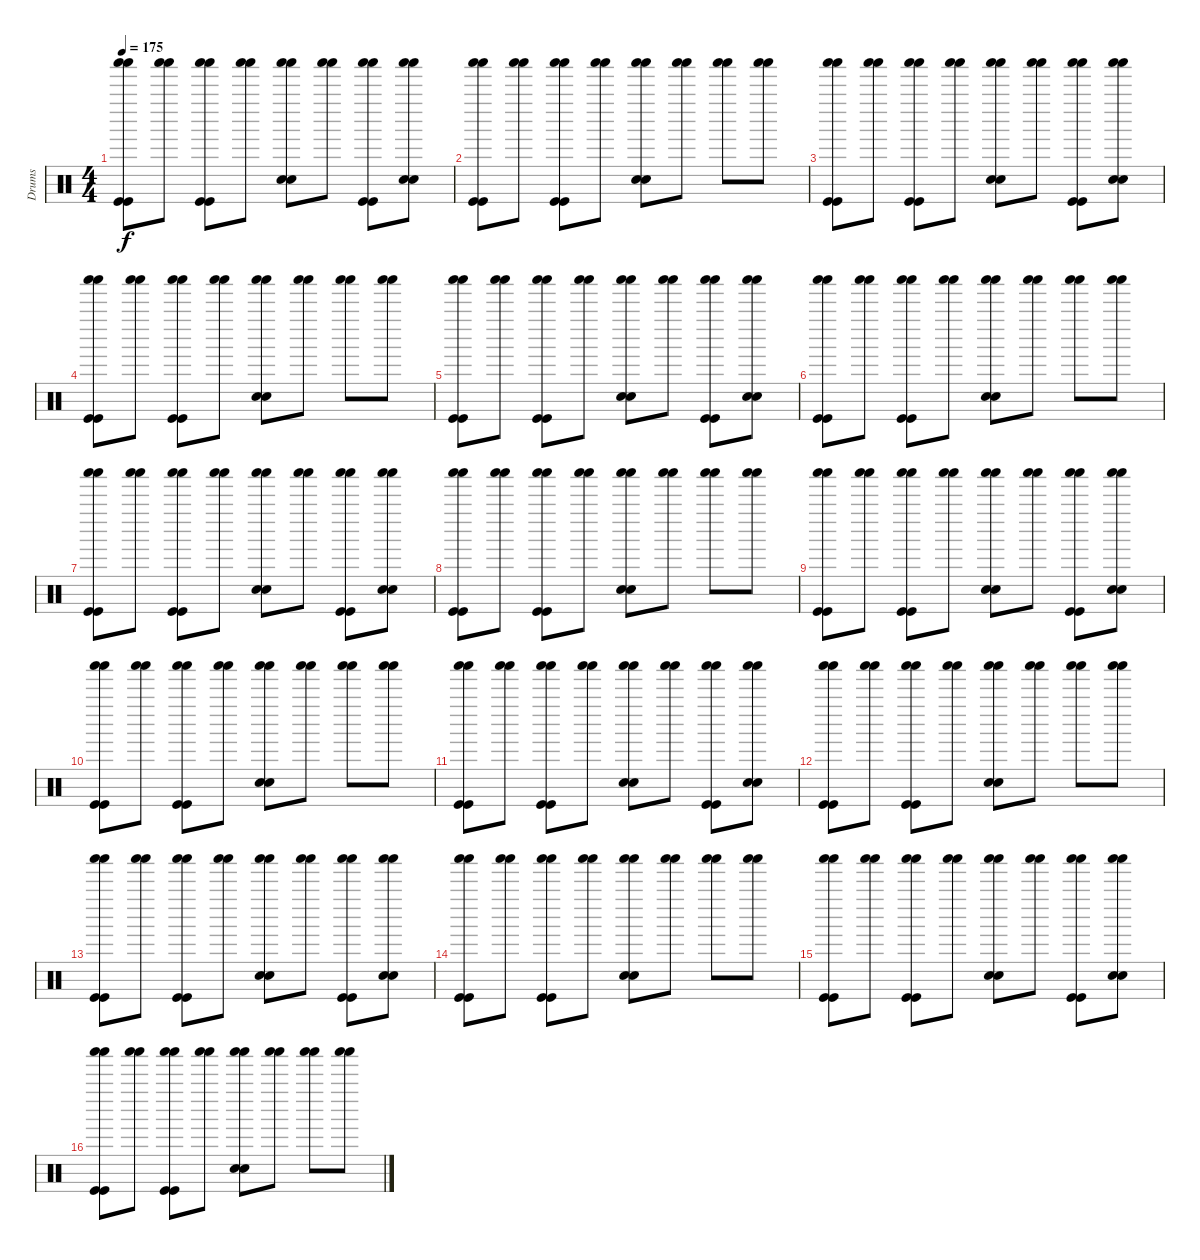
\track ("Drums" "Drums") {instrument percussion}
\staff {score}
\articulation defaults
\ts (4 4)
\tempo 175
\clef neutral
\ks c
("Shaker (hit)" "Shaker (hit)" "Kick (hit)" "Kick (hit)").8{dy f} ("Shaker (hit)" "Shaker (hit)").8 ("Shaker (hit)" "Shaker (hit)" "Kick (hit)" "Kick (hit)").8 ("Shaker (hit)" "Shaker (hit)").8 ("Shaker (hit)" "Shaker (hit)" "Electric Snare (hit)" "Electric Snare (hit)").8 ("Shaker (hit)" "Shaker (hit)").8 ("Shaker (hit)" "Shaker (hit)" "Kick (hit)" "Kick (hit)").8 ("Shaker (hit)" "Shaker (hit)" "Electric Snare (hit)" "Electric Snare (hit)").8 |
("Shaker (hit)" "Shaker (hit)" "Kick (hit)" "Kick (hit)").8 ("Shaker (hit)" "Shaker (hit)").8 ("Shaker (hit)" "Shaker (hit)" "Kick (hit)" "Kick (hit)").8 ("Shaker (hit)" "Shaker (hit)").8 ("Shaker (hit)" "Shaker (hit)" "Electric Snare (hit)" "Electric Snare (hit)").8 ("Shaker (hit)" "Shaker (hit)").8 ("Shaker (hit)" "Shaker (hit)").8 ("Shaker (hit)" "Shaker (hit)").8 |
("Shaker (hit)" "Shaker (hit)" "Kick (hit)" "Kick (hit)").8 ("Shaker (hit)" "Shaker (hit)").8 ("Shaker (hit)" "Shaker (hit)" "Kick (hit)" "Kick (hit)").8 ("Shaker (hit)" "Shaker (hit)").8 ("Shaker (hit)" "Shaker (hit)" "Electric Snare (hit)" "Electric Snare (hit)").8 ("Shaker (hit)" "Shaker (hit)").8 ("Shaker (hit)" "Shaker (hit)" "Kick (hit)" "Kick (hit)").8 ("Shaker (hit)" "Shaker (hit)" "Electric Snare (hit)" "Electric Snare (hit)").8 |
("Shaker (hit)" "Shaker (hit)" "Kick (hit)" "Kick (hit)").8 ("Shaker (hit)" "Shaker (hit)").8 ("Shaker (hit)" "Shaker (hit)" "Kick (hit)" "Kick (hit)").8 ("Shaker (hit)" "Shaker (hit)").8 ("Shaker (hit)" "Shaker (hit)" "Electric Snare (hit)" "Electric Snare (hit)").8 ("Shaker (hit)" "Shaker (hit)").8 ("Shaker (hit)" "Shaker (hit)").8 ("Shaker (hit)" "Shaker (hit)").8 |
("Shaker (hit)" "Shaker (hit)" "Kick (hit)" "Kick (hit)").8 ("Shaker (hit)" "Shaker (hit)").8 ("Shaker (hit)" "Shaker (hit)" "Kick (hit)" "Kick (hit)").8 ("Shaker (hit)" "Shaker (hit)").8 ("Shaker (hit)" "Shaker (hit)" "Electric Snare (hit)" "Electric Snare (hit)").8 ("Shaker (hit)" "Shaker (hit)").8 ("Shaker (hit)" "Shaker (hit)" "Kick (hit)" "Kick (hit)").8 ("Shaker (hit)" "Shaker (hit)" "Electric Snare (hit)" "Electric Snare (hit)").8 |
("Shaker (hit)" "Shaker (hit)" "Kick (hit)" "Kick (hit)").8 ("Shaker (hit)" "Shaker (hit)").8 ("Shaker (hit)" "Shaker (hit)" "Kick (hit)" "Kick (hit)").8 ("Shaker (hit)" "Shaker (hit)").8 ("Shaker (hit)" "Shaker (hit)" "Electric Snare (hit)" "Electric Snare (hit)").8 ("Shaker (hit)" "Shaker (hit)").8 ("Shaker (hit)" "Shaker (hit)").8 ("Shaker (hit)" "Shaker (hit)").8 |
("Shaker (hit)" "Shaker (hit)" "Kick (hit)" "Kick (hit)").8 ("Shaker (hit)" "Shaker (hit)").8 ("Shaker (hit)" "Shaker (hit)" "Kick (hit)" "Kick (hit)").8 ("Shaker (hit)" "Shaker (hit)").8 ("Shaker (hit)" "Shaker (hit)" "Electric Snare (hit)" "Electric Snare (hit)").8 ("Shaker (hit)" "Shaker (hit)").8 ("Shaker (hit)" "Shaker (hit)" "Kick (hit)" "Kick (hit)").8 ("Shaker (hit)" "Shaker (hit)" "Electric Snare (hit)" "Electric Snare (hit)").8 |
("Shaker (hit)" "Shaker (hit)" "Kick (hit)" "Kick (hit)").8 ("Shaker (hit)" "Shaker (hit)").8 ("Shaker (hit)" "Shaker (hit)" "Kick (hit)" "Kick (hit)").8 ("Shaker (hit)" "Shaker (hit)").8 ("Shaker (hit)" "Shaker (hit)" "Electric Snare (hit)" "Electric Snare (hit)").8 ("Shaker (hit)" "Shaker (hit)").8 ("Shaker (hit)" "Shaker (hit)").8 ("Shaker (hit)" "Shaker (hit)").8 |
("Shaker (hit)" "Shaker (hit)" "Kick (hit)" "Kick (hit)").8 ("Shaker (hit)" "Shaker (hit)").8 ("Shaker (hit)" "Shaker (hit)" "Kick (hit)" "Kick (hit)").8 ("Shaker (hit)" "Shaker (hit)").8 ("Shaker (hit)" "Shaker (hit)" "Electric Snare (hit)" "Electric Snare (hit)").8 ("Shaker (hit)" "Shaker (hit)").8 ("Shaker (hit)" "Shaker (hit)" "Kick (hit)" "Kick (hit)").8 ("Shaker (hit)" "Shaker (hit)" "Electric Snare (hit)" "Electric Snare (hit)").8 |
("Shaker (hit)" "Shaker (hit)" "Kick (hit)" "Kick (hit)").8 ("Shaker (hit)" "Shaker (hit)").8 ("Shaker (hit)" "Shaker (hit)" "Kick (hit)" "Kick (hit)").8 ("Shaker (hit)" "Shaker (hit)").8 ("Shaker (hit)" "Shaker (hit)" "Electric Snare (hit)" "Electric Snare (hit)").8 ("Shaker (hit)" "Shaker (hit)").8 ("Shaker (hit)" "Shaker (hit)").8 ("Shaker (hit)" "Shaker (hit)").8 |
("Shaker (hit)" "Shaker (hit)" "Kick (hit)" "Kick (hit)").8 ("Shaker (hit)" "Shaker (hit)").8 ("Shaker (hit)" "Shaker (hit)" "Kick (hit)" "Kick (hit)").8 ("Shaker (hit)" "Shaker (hit)").8 ("Shaker (hit)" "Shaker (hit)" "Electric Snare (hit)" "Electric Snare (hit)").8 ("Shaker (hit)" "Shaker (hit)").8 ("Shaker (hit)" "Shaker (hit)" "Kick (hit)" "Kick (hit)").8 ("Shaker (hit)" "Shaker (hit)" "Electric Snare (hit)" "Electric Snare (hit)").8 |
("Shaker (hit)" "Shaker (hit)" "Kick (hit)" "Kick (hit)").8 ("Shaker (hit)" "Shaker (hit)").8 ("Shaker (hit)" "Shaker (hit)" "Kick (hit)" "Kick (hit)").8 ("Shaker (hit)" "Shaker (hit)").8 ("Shaker (hit)" "Shaker (hit)" "Electric Snare (hit)" "Electric Snare (hit)").8 ("Shaker (hit)" "Shaker (hit)").8 ("Shaker (hit)" "Shaker (hit)").8 ("Shaker (hit)" "Shaker (hit)").8 |
("Shaker (hit)" "Shaker (hit)" "Kick (hit)" "Kick (hit)").8 ("Shaker (hit)" "Shaker (hit)").8 ("Shaker (hit)" "Shaker (hit)" "Kick (hit)" "Kick (hit)").8 ("Shaker (hit)" "Shaker (hit)").8 ("Shaker (hit)" "Shaker (hit)" "Electric Snare (hit)" "Electric Snare (hit)").8 ("Shaker (hit)" "Shaker (hit)").8 ("Shaker (hit)" "Shaker (hit)" "Kick (hit)" "Kick (hit)").8 ("Shaker (hit)" "Shaker (hit)" "Electric Snare (hit)" "Electric Snare (hit)").8 |
("Shaker (hit)" "Shaker (hit)" "Kick (hit)" "Kick (hit)").8 ("Shaker (hit)" "Shaker (hit)").8 ("Shaker (hit)" "Shaker (hit)" "Kick (hit)" "Kick (hit)").8 ("Shaker (hit)" "Shaker (hit)").8 ("Shaker (hit)" "Shaker (hit)" "Electric Snare (hit)" "Electric Snare (hit)").8 ("Shaker (hit)" "Shaker (hit)").8 ("Shaker (hit)" "Shaker (hit)").8 ("Shaker (hit)" "Shaker (hit)").8 |
("Shaker (hit)" "Shaker (hit)" "Kick (hit)" "Kick (hit)").8 ("Shaker (hit)" "Shaker (hit)").8 ("Shaker (hit)" "Shaker (hit)" "Kick (hit)" "Kick (hit)").8 ("Shaker (hit)" "Shaker (hit)").8 ("Shaker (hit)" "Shaker (hit)" "Electric Snare (hit)" "Electric Snare (hit)").8 ("Shaker (hit)" "Shaker (hit)").8 ("Shaker (hit)" "Shaker (hit)" "Kick (hit)" "Kick (hit)").8 ("Shaker (hit)" "Shaker (hit)" "Electric Snare (hit)" "Electric Snare (hit)").8 |
("Shaker (hit)" "Shaker (hit)" "Kick (hit)" "Kick (hit)").8 ("Shaker (hit)" "Shaker (hit)").8 ("Shaker (hit)" "Shaker (hit)" "Kick (hit)" "Kick (hit)").8 ("Shaker (hit)" "Shaker (hit)").8 ("Shaker (hit)" "Shaker (hit)" "Electric Snare (hit)" "Electric Snare (hit)").8 ("Shaker (hit)" "Shaker (hit)").8 ("Shaker (hit)" "Shaker (hit)").8 ("Shaker (hit)" "Shaker (hit)").8
